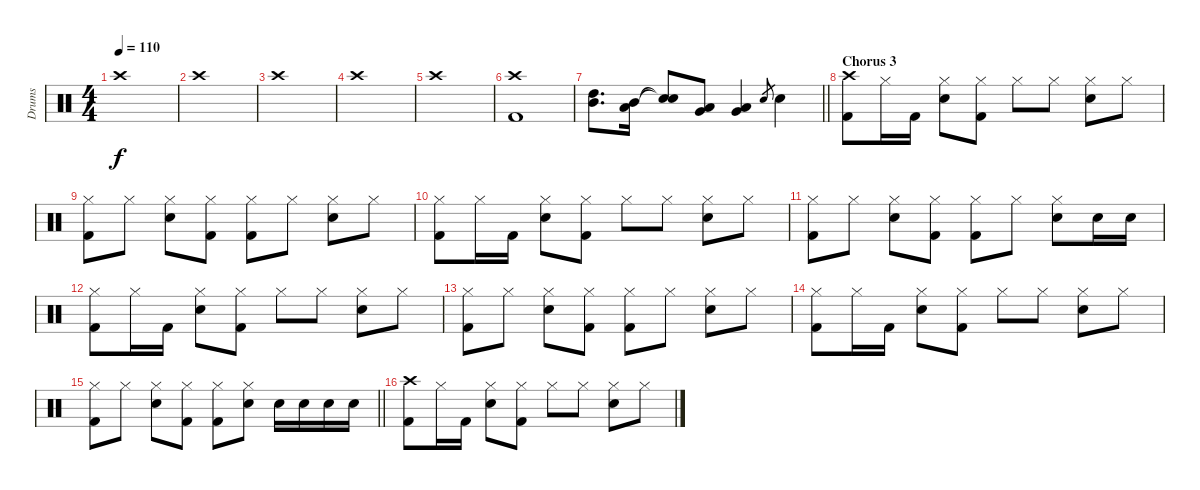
\track ("Drums" "Drums") {instrument percussion}
\staff {score}
\articulation defaults
\ts (4 4)
\tempo 110
\clef neutral
\ks c "Crash high (hit)".1{dy f}
|
"Crash high (hit)".1 |
"Crash high (hit)".1 |
"Crash high (hit)".1 |
"Crash high (hit)".1 |
("Crash high (hit)" "Kick (hit) 2").1 |
\barLineRight lightlight
("High Tom (hit)" "Mid Tom (hit)").8{d} ("Mid Tom (hit)" "Low Tom (hit)").16 ("Snare (hit)"{t} "Snare (hit)"{t}).8 ("Low Tom (hit)" "Very Low Tom (hit)").8 ("Low Tom (hit)" "Very Low Tom (hit)").4 "Snare (hit) 2".8{gr} "Snare (hit) 2".4 |
\section ("" "Chorus 3")
("Crash high (hit)" "Kick (hit) 2").8 "Hi-Hat (closed)".16 "Kick (hit) 2".16 ("Hi-Hat (closed)" "Snare (hit) 2").8 ("Hi-Hat (closed)" "Kick (hit) 2").8 "Hi-Hat (closed)".8 "Hi-Hat (closed)".8 ("Hi-Hat (closed)" "Snare (hit) 2").8 "Hi-Hat (closed)".8 |
("Hi-Hat (closed)" "Kick (hit) 2").8 "Hi-Hat (closed)".8 ("Hi-Hat (closed)" "Snare (hit) 2").8 ("Hi-Hat (closed)" "Kick (hit) 2").8 ("Hi-Hat (closed)" "Kick (hit) 2").8 "Hi-Hat (closed)".8 ("Hi-Hat (closed)" "Snare (hit) 2").8 "Hi-Hat (closed)".8 |
("Hi-Hat (closed)" "Kick (hit) 2").8 "Hi-Hat (closed)".16 "Kick (hit) 2".16 ("Hi-Hat (closed)" "Snare (hit) 2").8 ("Hi-Hat (closed)" "Kick (hit) 2").8 "Hi-Hat (closed)".8 "Hi-Hat (closed)".8 ("Hi-Hat (closed)" "Snare (hit) 2").8 "Hi-Hat (closed)".8 |
("Hi-Hat (closed)" "Kick (hit) 2").8 "Hi-Hat (closed)".8 ("Hi-Hat (closed)" "Snare (hit) 2").8 ("Hi-Hat (closed)" "Kick (hit) 2").8 ("Hi-Hat (closed)" "Kick (hit) 2").8 "Hi-Hat (closed)".8 ("Hi-Hat (closed)" "Snare (hit) 2").8 "Snare (hit) 2".16 "Snare (hit) 2".16 |
("Hi-Hat (closed)" "Kick (hit) 2").8 "Hi-Hat (closed)".16 "Kick (hit) 2".16 ("Hi-Hat (closed)" "Snare (hit) 2").8 ("Hi-Hat (closed)" "Kick (hit) 2").8 "Hi-Hat (closed)".8 "Hi-Hat (closed)".8 ("Hi-Hat (closed)" "Snare (hit) 2").8 "Hi-Hat (closed)".8 |
("Hi-Hat (closed)" "Kick (hit) 2").8 "Hi-Hat (closed)".8 ("Hi-Hat (closed)" "Snare (hit) 2").8 ("Hi-Hat (closed)" "Kick (hit) 2").8 ("Hi-Hat (closed)" "Kick (hit) 2").8 "Hi-Hat (closed)".8 ("Hi-Hat (closed)" "Snare (hit) 2").8 "Hi-Hat (closed)".8 |
("Hi-Hat (closed)" "Kick (hit) 2").8 "Hi-Hat (closed)".16 "Kick (hit) 2".16 ("Hi-Hat (closed)" "Snare (hit) 2").8 ("Hi-Hat (closed)" "Kick (hit) 2").8 "Hi-Hat (closed)".8 "Hi-Hat (closed)".8 ("Hi-Hat (closed)" "Snare (hit) 2").8 "Hi-Hat (closed)".8 |
\barLineRight lightlight
("Hi-Hat (closed)" "Kick (hit) 2").8 "Hi-Hat (closed)".8 ("Hi-Hat (closed)" "Snare (hit) 2").8 ("Hi-Hat (closed)" "Kick (hit) 2").8 ("Hi-Hat (closed)" "Kick (hit) 2").8 ("Hi-Hat (closed)" "Snare (hit) 2").8 "Snare (hit) 2".16 "Snare (hit) 2".16 "Snare (hit) 2".16 "Snare (hit) 2".16 |
("Crash high (hit)" "Kick (hit) 2").8 "Hi-Hat (closed)".16 "Kick (hit) 2".16 ("Hi-Hat (closed)" "Snare (hit) 2").8 ("Hi-Hat (closed)" "Kick (hit) 2").8 "Hi-Hat (closed)".8 "Hi-Hat (closed)".8 ("Hi-Hat (closed)" "Snare (hit) 2").8 "Hi-Hat (closed)".8
